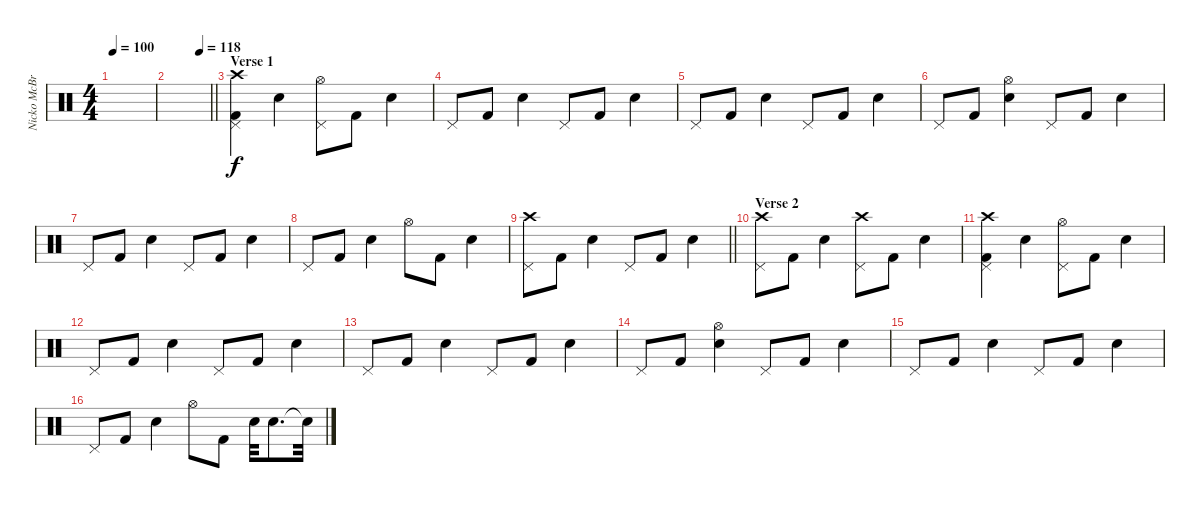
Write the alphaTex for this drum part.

\track ("Nicko McBrain" "Nicko McBr") {instrument percussion}
\staff {score}
\articulation defaults
\ts (4 4)
\tempo 100
\clef neutral
\ks c
|
\tempo (118 0.75)
\barLineRight lightlight
|
\section ("" "Verse 1")
("Crash high (hit)" "Pedal Hi-Hat (hit)" "Kick (hit) 2").4 "Electric Snare (hit)".4 ("Hi-Hat (open)" "Pedal Hi-Hat (hit)").8 "Kick (hit) 2".8 "Electric Snare (hit)".4 |
"Pedal Hi-Hat (hit)".8 "Kick (hit) 2".8 "Electric Snare (hit)".4 "Pedal Hi-Hat (hit)".8 "Kick (hit) 2".8 "Electric Snare (hit)".4 |
"Pedal Hi-Hat (hit)".8 "Kick (hit) 2".8 "Electric Snare (hit)".4 "Pedal Hi-Hat (hit)".8 "Kick (hit) 2".8 "Electric Snare (hit)".4 |
"Pedal Hi-Hat (hit)".8 "Kick (hit) 2".8 ("Hi-Hat (open)" "Electric Snare (hit)").4 "Pedal Hi-Hat (hit)".8 "Kick (hit) 2".8 "Electric Snare (hit)".4 |
"Pedal Hi-Hat (hit)".8 "Kick (hit) 2".8 "Electric Snare (hit)".4 "Pedal Hi-Hat (hit)".8 "Kick (hit) 2".8 "Electric Snare (hit)".4 |
"Pedal Hi-Hat (hit)".8 "Kick (hit) 2".8 "Electric Snare (hit)".4 "Hi-Hat (open)".8 "Kick (hit) 2".8 "Electric Snare (hit)".4 |
\barLineRight lightlight
("Crash high (hit)" "Pedal Hi-Hat (hit)").8 "Kick (hit) 2".8 "Electric Snare (hit)".4 "Pedal Hi-Hat (hit)".8 "Kick (hit) 2".8 "Electric Snare (hit)".4 |
\section ("" "Verse 2")
("Crash high (hit)" "Pedal Hi-Hat (hit)").8 "Kick (hit) 2".8 "Electric Snare (hit)".4 ("Crash high (hit)" "Pedal Hi-Hat (hit)").8 "Kick (hit) 2".8 "Electric Snare (hit)".4 |
("Crash high (hit)" "Pedal Hi-Hat (hit)" "Kick (hit) 2").4 "Electric Snare (hit)".4 ("Hi-Hat (open)" "Pedal Hi-Hat (hit)").8 "Kick (hit) 2".8 "Electric Snare (hit)".4 |
"Pedal Hi-Hat (hit)".8 "Kick (hit) 2".8 "Electric Snare (hit)".4 "Pedal Hi-Hat (hit)".8 "Kick (hit) 2".8 "Electric Snare (hit)".4 |
"Pedal Hi-Hat (hit)".8 "Kick (hit) 2".8 "Electric Snare (hit)".4 "Pedal Hi-Hat (hit)".8 "Kick (hit) 2".8 "Electric Snare (hit)".4 |
"Pedal Hi-Hat (hit)".8 "Kick (hit) 2".8 ("Hi-Hat (open)" "Electric Snare (hit)").4 "Pedal Hi-Hat (hit)".8 "Kick (hit) 2".8 "Electric Snare (hit)".4 |
"Pedal Hi-Hat (hit)".8 "Kick (hit) 2".8 "Electric Snare (hit)".4 "Pedal Hi-Hat (hit)".8 "Kick (hit) 2".8 "Electric Snare (hit)".4 |
"Pedal Hi-Hat (hit)".8 "Kick (hit) 2".8 "Electric Snare (hit)".4 "Hi-Hat (open)".8 "Kick (hit) 2".8 "Electric Snare (hit)".32 "Electric Snare (hit)".8{d} "Electric Snare (hit)"{t}.32
